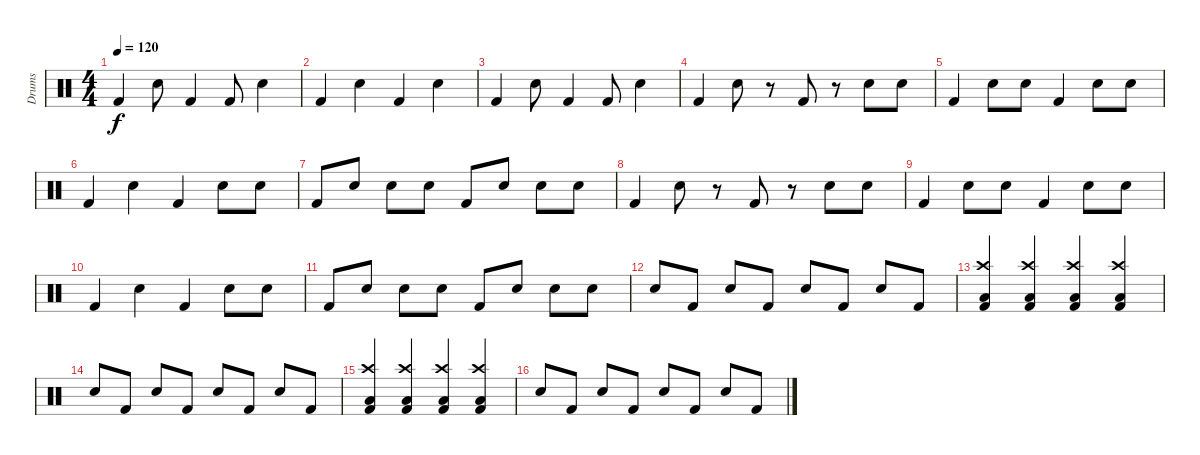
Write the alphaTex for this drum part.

\track ("Drums" "Drums") {instrument percussion}
\staff {score}
\articulation defaults
\ts (4 4)
\tempo 120
\clef neutral
\ks c "Kick (hit) 2".4{dy f} "Snare (hit) 2".8 "Kick (hit) 2".4 "Kick (hit) 2".8 "Snare (hit) 2".4
|
"Kick (hit) 2".4 "Snare (hit) 2".4 "Kick (hit) 2".4 "Snare (hit) 2".4 |
"Kick (hit) 2".4 "Snare (hit) 2".8 "Kick (hit) 2".4 "Kick (hit) 2".8 "Snare (hit) 2".4 |
"Kick (hit) 2".4 "Snare (hit) 2".8 r.8 "Kick (hit) 2".8 r.8 "Snare (hit) 2".8 "Snare (hit) 2".8 |
"Kick (hit) 2".4 "Snare (hit) 2".8 "Snare (hit) 2".8 "Kick (hit) 2".4 "Snare (hit) 2".8 "Snare (hit) 2".8 |
"Kick (hit) 2".4 "Snare (hit) 2".4 "Kick (hit) 2".4 "Snare (hit) 2".8 "Snare (hit) 2".8 |
"Kick (hit) 2".8 "Snare (hit) 2".8 "Snare (hit) 2".8 "Snare (hit) 2".8 "Kick (hit) 2".8 "Snare (hit) 2".8 "Snare (hit) 2".8 "Snare (hit) 2".8 |
"Kick (hit) 2".4 "Snare (hit) 2".8 r.8 "Kick (hit) 2".8 r.8 "Snare (hit) 2".8 "Snare (hit) 2".8 |
"Kick (hit) 2".4 "Snare (hit) 2".8 "Snare (hit) 2".8 "Kick (hit) 2".4 "Snare (hit) 2".8 "Snare (hit) 2".8 |
"Kick (hit) 2".4 "Snare (hit) 2".4 "Kick (hit) 2".4 "Snare (hit) 2".8 "Snare (hit) 2".8 |
"Kick (hit) 2".8 "Snare (hit) 2".8 "Snare (hit) 2".8 "Snare (hit) 2".8 "Kick (hit) 2".8 "Snare (hit) 2".8 "Snare (hit) 2".8 "Snare (hit) 2".8 |
"Snare (hit) 2".8 "Kick (hit) 2".8 "Snare (hit) 2".8 "Kick (hit) 2".8 "Snare (hit) 2".8 "Kick (hit) 2".8 "Snare (hit) 2".8 "Kick (hit) 2".8 |
("Crash high (hit)" "Kick (hit) 2" "Low Tom (hit)").4 ("Crash high (hit)" "Kick (hit) 2" "Low Tom (hit)").4 ("Crash high (hit)" "Kick (hit) 2" "Low Tom (hit)").4 ("Crash high (hit)" "Kick (hit) 2" "Low Tom (hit)").4 |
"Snare (hit) 2".8 "Kick (hit) 2".8 "Snare (hit) 2".8 "Kick (hit) 2".8 "Snare (hit) 2".8 "Kick (hit) 2".8 "Snare (hit) 2".8 "Kick (hit) 2".8 |
("Crash high (hit)" "Kick (hit) 2" "Low Tom (hit)").4 ("Crash high (hit)" "Kick (hit) 2" "Low Tom (hit)").4 ("Crash high (hit)" "Kick (hit) 2" "Low Tom (hit)").4 ("Crash high (hit)" "Kick (hit) 2" "Low Tom (hit)").4 |
"Snare (hit) 2".8 "Kick (hit) 2".8 "Snare (hit) 2".8 "Kick (hit) 2".8 "Snare (hit) 2".8 "Kick (hit) 2".8 "Snare (hit) 2".8 "Kick (hit) 2".8
